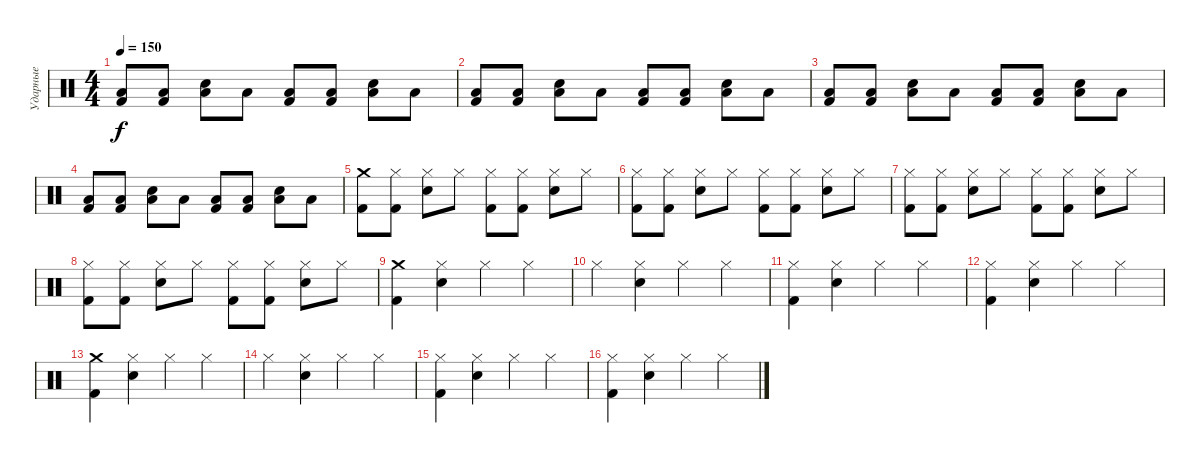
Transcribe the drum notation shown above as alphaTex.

\track ("Ударные" "Ударные") {instrument percussion}
\staff {score}
\articulation defaults
\ts (4 4)
\tempo 150
\clef neutral
\ks c
("Low Floor Tom (hit)" "Kick (hit) 2").8{dy f} ("Low Floor Tom (hit)" "Kick (hit) 2").8 ("Low Floor Tom (hit)" "Snare (hit) 2").8 "Low Floor Tom (hit)".8 ("Low Floor Tom (hit)" "Kick (hit) 2").8 ("Low Floor Tom (hit)" "Kick (hit) 2").8 ("Low Floor Tom (hit)" "Snare (hit) 2").8 "Low Floor Tom (hit)".8 |
("Low Floor Tom (hit)" "Kick (hit) 2").8 ("Low Floor Tom (hit)" "Kick (hit) 2").8 ("Low Floor Tom (hit)" "Snare (hit) 2").8 "Low Floor Tom (hit)".8 ("Low Floor Tom (hit)" "Kick (hit) 2").8 ("Low Floor Tom (hit)" "Kick (hit) 2").8 ("Low Floor Tom (hit)" "Snare (hit) 2").8 "Low Floor Tom (hit)".8 |
("Low Floor Tom (hit)" "Kick (hit) 2").8 ("Low Floor Tom (hit)" "Kick (hit) 2").8 ("Low Floor Tom (hit)" "Snare (hit) 2").8 "Low Floor Tom (hit)".8 ("Low Floor Tom (hit)" "Kick (hit) 2").8 ("Low Floor Tom (hit)" "Kick (hit) 2").8 ("Low Floor Tom (hit)" "Snare (hit) 2").8 "Low Floor Tom (hit)".8 |
("Low Floor Tom (hit)" "Kick (hit) 2").8 ("Low Floor Tom (hit)" "Kick (hit) 2").8 ("Low Floor Tom (hit)" "Snare (hit) 2").8 "Low Floor Tom (hit)".8 ("Low Floor Tom (hit)" "Kick (hit) 2").8 ("Low Floor Tom (hit)" "Kick (hit) 2").8 ("Low Floor Tom (hit)" "Snare (hit) 2").8 "Low Floor Tom (hit)".8 |
("Crash medium (hit)" "Kick (hit) 2").8 ("Hi-Hat (closed)" "Kick (hit) 2").8 ("Hi-Hat (closed)" "Snare (hit) 2").8 "Hi-Hat (closed)".8 ("Hi-Hat (closed)" "Kick (hit) 2").8 ("Hi-Hat (closed)" "Kick (hit) 2").8 ("Hi-Hat (closed)" "Snare (hit) 2").8 "Hi-Hat (closed)".8 |
("Hi-Hat (closed)" "Kick (hit) 2").8 ("Hi-Hat (closed)" "Kick (hit) 2").8 ("Hi-Hat (closed)" "Snare (hit) 2").8 "Hi-Hat (closed)".8 ("Hi-Hat (closed)" "Kick (hit) 2").8 ("Hi-Hat (closed)" "Kick (hit) 2").8 ("Hi-Hat (closed)" "Snare (hit) 2").8 "Hi-Hat (closed)".8 |
("Hi-Hat (closed)" "Kick (hit) 2").8 ("Hi-Hat (closed)" "Kick (hit) 2").8 ("Hi-Hat (closed)" "Snare (hit) 2").8 "Hi-Hat (closed)".8 ("Hi-Hat (closed)" "Kick (hit) 2").8 ("Hi-Hat (closed)" "Kick (hit) 2").8 ("Hi-Hat (closed)" "Snare (hit) 2").8 "Hi-Hat (closed)".8 |
("Hi-Hat (closed)" "Kick (hit) 2").8 ("Hi-Hat (closed)" "Kick (hit) 2").8 ("Hi-Hat (closed)" "Snare (hit) 2").8 "Hi-Hat (closed)".8 ("Hi-Hat (closed)" "Kick (hit) 2").8 ("Hi-Hat (closed)" "Kick (hit) 2").8 ("Hi-Hat (closed)" "Snare (hit) 2").8 "Hi-Hat (closed)".8 |
("Crash medium (hit)" "Kick (hit) 2").4 ("Hi-Hat (closed)" "Snare (hit) 2").4 "Hi-Hat (closed)".4 "Hi-Hat (closed)".4 |
"Hi-Hat (closed)".4 ("Hi-Hat (closed)" "Snare (hit) 2").4 "Hi-Hat (closed)".4 "Hi-Hat (closed)".4 |
("Hi-Hat (closed)" "Kick (hit) 2").4 ("Hi-Hat (closed)" "Snare (hit) 2").4 "Hi-Hat (closed)".4 "Hi-Hat (closed)".4 |
("Hi-Hat (closed)" "Kick (hit) 2").4 ("Hi-Hat (closed)" "Snare (hit) 2").4 "Hi-Hat (closed)".4 "Hi-Hat (closed)".4 |
("Crash medium (hit)" "Kick (hit) 2").4 ("Hi-Hat (closed)" "Snare (hit) 2").4 "Hi-Hat (closed)".4 "Hi-Hat (closed)".4 |
"Hi-Hat (closed)".4 ("Hi-Hat (closed)" "Snare (hit) 2").4 "Hi-Hat (closed)".4 "Hi-Hat (closed)".4 |
("Hi-Hat (closed)" "Kick (hit) 2").4 ("Hi-Hat (closed)" "Snare (hit) 2").4 "Hi-Hat (closed)".4 "Hi-Hat (closed)".4 |
("Hi-Hat (closed)" "Kick (hit) 2").4 ("Hi-Hat (closed)" "Snare (hit) 2").4 "Hi-Hat (closed)".4 "Hi-Hat (closed)".4
